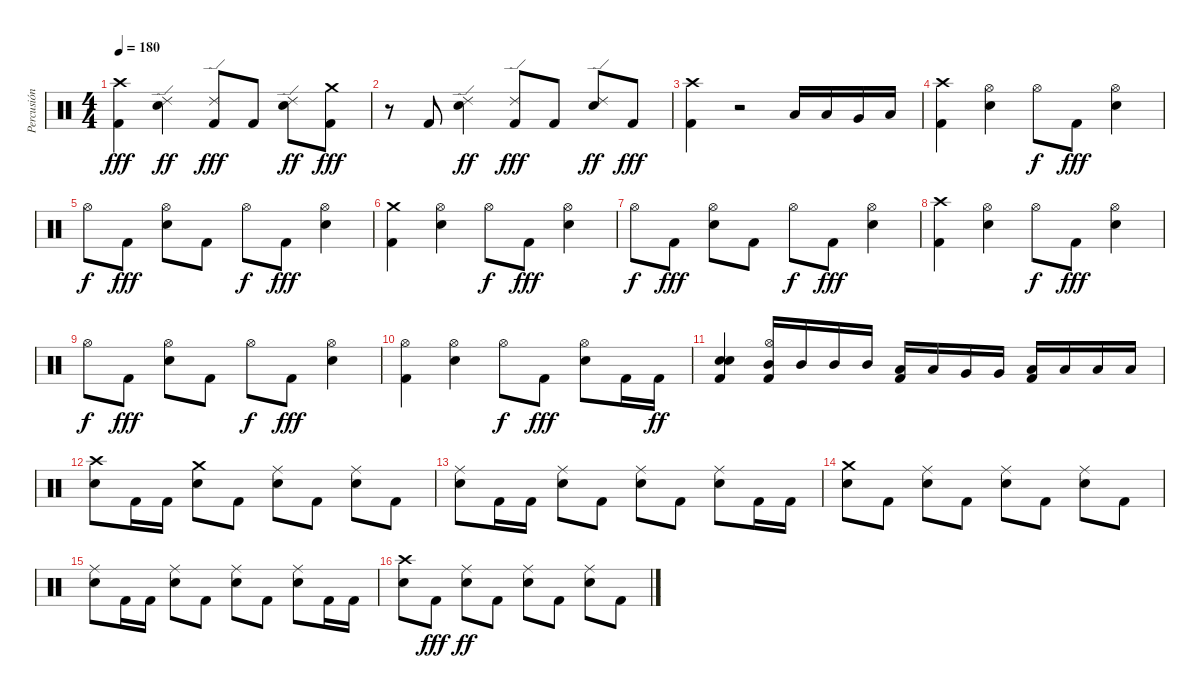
\track ("Percusión" "Percusión") {instrument percussion}
\staff {score}
\articulation defaults
\ts (4 4)
\tempo 180
\clef neutral
\ks c
("Crash high (hit)" "Kick (hit) 2").4{dy fff} ("Ride (edge) 2" "Electric Snare (hit)").4{dy ff} ("Ride (edge) 2" "Kick (hit) 2").8{dy fff} "Kick (hit) 2".8 ("Ride (edge) 2" "Electric Snare (hit)").8{dy ff} ("Crash medium (hit)" "Kick (hit) 2").8{dy fff} |
r.8 "Kick (hit) 2".8 ("Ride (edge) 2" "Electric Snare (hit)").4{dy ff} ("Ride (edge) 2" "Kick (hit) 2").8{dy fff} "Kick (hit) 2".8 ("Ride (edge) 2" "Electric Snare (hit)").8{dy ff} "Kick (hit) 2".8{dy fff} |
("Crash high (hit)" "Kick (hit) 2").4 r.2 "Low Tom (hit)".16 "Low Tom (hit)".16 "Very Low Tom (hit)".16 "Low Floor Tom (hit)".16 |
("Crash high (hit)" "Kick (hit) 2").4 ("Hi-Hat (open)" "Electric Snare (hit)").4 "Hi-Hat (open)".8{dy f} "Kick (hit) 2".8{dy fff} ("Hi-Hat (open)" "Electric Snare (hit)").4 |
"Hi-Hat (open)".8{dy f} "Kick (hit) 2".8{dy fff} ("Hi-Hat (open)" "Electric Snare (hit)").8 "Kick (hit) 2".8 "Hi-Hat (open)".8{dy f} "Kick (hit) 2".8{dy fff} ("Hi-Hat (open)" "Electric Snare (hit)").4 |
("Crash medium (hit)" "Kick (hit) 2").4 ("Hi-Hat (open)" "Electric Snare (hit)").4 "Hi-Hat (open)".8{dy f} "Kick (hit) 2".8{dy fff} ("Hi-Hat (open)" "Electric Snare (hit)").4 |
"Hi-Hat (open)".8{dy f} "Kick (hit) 2".8{dy fff} ("Hi-Hat (open)" "Electric Snare (hit)").8 "Kick (hit) 2".8 "Hi-Hat (open)".8{dy f} "Kick (hit) 2".8{dy fff} ("Hi-Hat (open)" "Electric Snare (hit)").4 |
("Crash high (hit)" "Kick (hit) 2").4 ("Hi-Hat (open)" "Electric Snare (hit)").4 "Hi-Hat (open)".8{dy f} "Kick (hit) 2".8{dy fff} ("Hi-Hat (open)" "Electric Snare (hit)").4 |
"Hi-Hat (open)".8{dy f} "Kick (hit) 2".8{dy fff} ("Hi-Hat (open)" "Electric Snare (hit)").8 "Kick (hit) 2".8 "Hi-Hat (open)".8{dy f} "Kick (hit) 2".8{dy fff} ("Hi-Hat (open)" "Electric Snare (hit)").4 |
("Hi-Hat (open)" "Kick (hit) 2").4 ("Hi-Hat (open)" "Electric Snare (hit)").4 "Hi-Hat (open)".8{dy f} "Kick (hit) 2".8{dy fff} ("Hi-Hat (open)" "Electric Snare (hit)").8 "Kick (hit) 2".16 "Kick (hit) 2".16{dy ff} |
("Electric Snare (hit)" "Electric Snare (hit)" "Kick (hit) 2").4{bd 120} ("Hi-Hat (open)" "Mid Tom (hit)" "Kick (hit) 2").16 "Mid Tom (hit)".16 "Mid Tom (hit)".16 "Mid Tom (hit)".16 ("Low Tom (hit)" "Kick (hit) 2").16 "Low Tom (hit)".16 "Very Low Tom (hit)".16 "Very Low Tom (hit)".16 ("Low Floor Tom (hit)" "Kick (hit) 2").16 "Low Floor Tom (hit)".16 "Low Floor Tom (hit)".16 "Low Floor Tom (hit)".16 |
("Crash high (hit)" "Electric Snare (hit)").8 "Kick (hit) 2".16 "Kick (hit) 2".16 ("Crash medium (hit)" "Electric Snare (hit)").8 "Kick (hit) 2".8 ("Ride (middle)" "Electric Snare (hit)").8 "Kick (hit) 2".8 ("Ride (middle)" "Electric Snare (hit)").8 "Kick (hit) 2".8 |
("Ride (middle)" "Electric Snare (hit)").8 "Kick (hit) 2".16 "Kick (hit) 2".16 ("Ride (middle)" "Electric Snare (hit)").8 "Kick (hit) 2".8 ("Ride (middle)" "Electric Snare (hit)").8 "Kick (hit) 2".8 ("Ride (middle)" "Electric Snare (hit)").8 "Kick (hit) 2".16 "Kick (hit) 2".16 |
("Crash medium (hit)" "Electric Snare (hit)").8 "Kick (hit) 2".8 ("Ride (middle)" "Electric Snare (hit)").8 "Kick (hit) 2".8 ("Ride (middle)" "Electric Snare (hit)").8 "Kick (hit) 2".8 ("Ride (middle)" "Electric Snare (hit)").8 "Kick (hit) 2".8 |
("Ride (middle)" "Electric Snare (hit)").8 "Kick (hit) 2".16 "Kick (hit) 2".16 ("Ride (middle)" "Electric Snare (hit)").8 "Kick (hit) 2".8 ("Ride (middle)" "Electric Snare (hit)").8 "Kick (hit) 2".8 ("Ride (middle)" "Electric Snare (hit)").8 "Kick (hit) 2".16 "Kick (hit) 2".16 |
("Crash high (hit)" "Electric Snare (hit)").8 "Kick (hit) 2".8{dy fff} ("Ride (middle)" "Electric Snare (hit)").8{dy ff} "Kick (hit) 2".8 ("Ride (middle)" "Electric Snare (hit)").8 "Kick (hit) 2".8 ("Ride (middle)" "Electric Snare (hit)").8 "Kick (hit) 2".8
